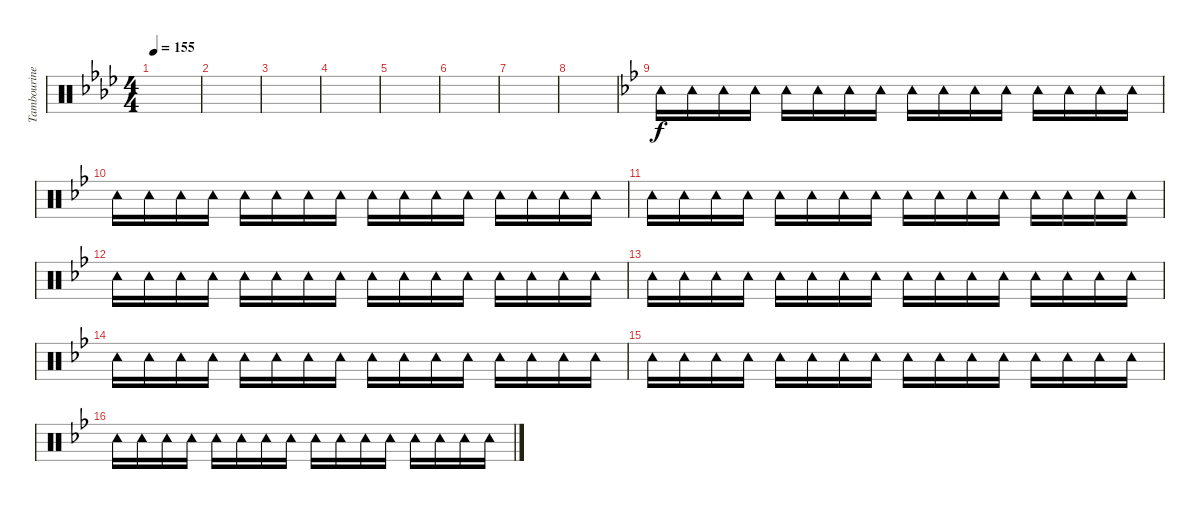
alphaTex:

\track ("Tambourine" "Tambourine") {instrument percussion}
\staff {score}
\articulation defaults
\ts (4 4)
\section ("" "")
\tempo 155
\clef neutral
\ks ab
|
|
|
|
|
|
|
|
\ks bb "Tambourine (hit)".16 "Tambourine (hit)".16 "Tambourine (hit)".16 "Tambourine (hit)".16 "Tambourine (hit)".16 "Tambourine (hit)".16 "Tambourine (hit)".16 "Tambourine (hit)".16 "Tambourine (hit)".16 "Tambourine (hit)".16 "Tambourine (hit)".16 "Tambourine (hit)".16 "Tambourine (hit)".16 "Tambourine (hit)".16 "Tambourine (hit)".16 "Tambourine (hit)".16
|
"Tambourine (hit)".16 "Tambourine (hit)".16 "Tambourine (hit)".16 "Tambourine (hit)".16 "Tambourine (hit)".16 "Tambourine (hit)".16 "Tambourine (hit)".16 "Tambourine (hit)".16 "Tambourine (hit)".16 "Tambourine (hit)".16 "Tambourine (hit)".16 "Tambourine (hit)".16 "Tambourine (hit)".16 "Tambourine (hit)".16 "Tambourine (hit)".16 "Tambourine (hit)".16 |
"Tambourine (hit)".16 "Tambourine (hit)".16 "Tambourine (hit)".16 "Tambourine (hit)".16 "Tambourine (hit)".16 "Tambourine (hit)".16 "Tambourine (hit)".16 "Tambourine (hit)".16 "Tambourine (hit)".16 "Tambourine (hit)".16 "Tambourine (hit)".16 "Tambourine (hit)".16 "Tambourine (hit)".16 "Tambourine (hit)".16 "Tambourine (hit)".16 "Tambourine (hit)".16 |
"Tambourine (hit)".16 "Tambourine (hit)".16 "Tambourine (hit)".16 "Tambourine (hit)".16 "Tambourine (hit)".16 "Tambourine (hit)".16 "Tambourine (hit)".16 "Tambourine (hit)".16 "Tambourine (hit)".16 "Tambourine (hit)".16 "Tambourine (hit)".16 "Tambourine (hit)".16 "Tambourine (hit)".16 "Tambourine (hit)".16 "Tambourine (hit)".16 "Tambourine (hit)".16 |
"Tambourine (hit)".16 "Tambourine (hit)".16 "Tambourine (hit)".16 "Tambourine (hit)".16 "Tambourine (hit)".16 "Tambourine (hit)".16 "Tambourine (hit)".16 "Tambourine (hit)".16 "Tambourine (hit)".16 "Tambourine (hit)".16 "Tambourine (hit)".16 "Tambourine (hit)".16 "Tambourine (hit)".16 "Tambourine (hit)".16 "Tambourine (hit)".16 "Tambourine (hit)".16 |
"Tambourine (hit)".16 "Tambourine (hit)".16 "Tambourine (hit)".16 "Tambourine (hit)".16 "Tambourine (hit)".16 "Tambourine (hit)".16 "Tambourine (hit)".16 "Tambourine (hit)".16 "Tambourine (hit)".16 "Tambourine (hit)".16 "Tambourine (hit)".16 "Tambourine (hit)".16 "Tambourine (hit)".16 "Tambourine (hit)".16 "Tambourine (hit)".16 "Tambourine (hit)".16 |
"Tambourine (hit)".16 "Tambourine (hit)".16 "Tambourine (hit)".16 "Tambourine (hit)".16 "Tambourine (hit)".16 "Tambourine (hit)".16 "Tambourine (hit)".16 "Tambourine (hit)".16 "Tambourine (hit)".16 "Tambourine (hit)".16 "Tambourine (hit)".16 "Tambourine (hit)".16 "Tambourine (hit)".16 "Tambourine (hit)".16 "Tambourine (hit)".16 "Tambourine (hit)".16 |
"Tambourine (hit)".16 "Tambourine (hit)".16 "Tambourine (hit)".16 "Tambourine (hit)".16 "Tambourine (hit)".16 "Tambourine (hit)".16 "Tambourine (hit)".16 "Tambourine (hit)".16 "Tambourine (hit)".16 "Tambourine (hit)".16 "Tambourine (hit)".16 "Tambourine (hit)".16 "Tambourine (hit)".16 "Tambourine (hit)".16 "Tambourine (hit)".16 "Tambourine (hit)".16
